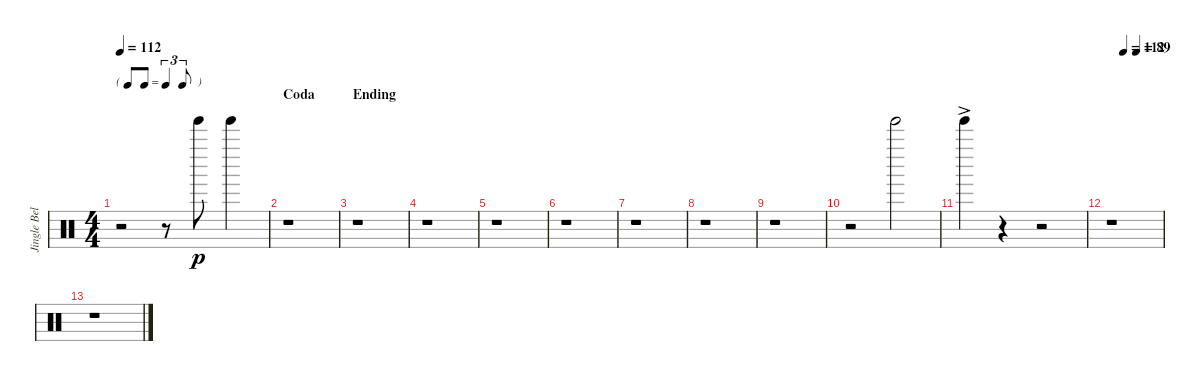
\track ("Jingle Bell" "Jingle Bel") {instrument percussion}
\staff {score}
\articulation defaults
\ts (4 4)
\tf triplet8th
\tempo 112
\clef neutral
\ks c
r.2{dy p} r.8 "Tinkle Bell (hit)".8 "Tinkle Bell (hit)".4 |
\section ("" "Coda")
r.1 |
\section ("" "Ending")
r.1 |
r.1 |
r.1 |
r.1 |
r.1 |
r.1 |
r.1 |
r.2 "Tinkle Bell (hit)".2 |
"Tinkle Bell (hit)"{ac}.4 r.4 r.2 |
\tempo (112 0.25)
\tempo (89 0.5)
r.1 |
r.1
